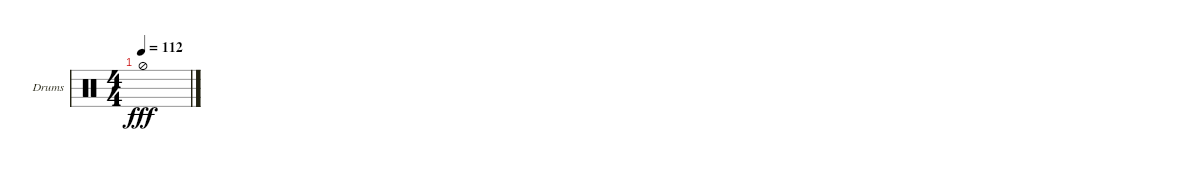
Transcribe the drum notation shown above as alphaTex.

\defaultSystemsLayout 4
\bracketExtendMode groupsimilarinstruments
\firstSystemTrackNameOrientation horizontal
\otherSystemsTrackNameOrientation horizontal
\track ("Helders" "Drums") {instrument percussion}
\staff {score}
\articulation defaults
\ts (4 4)
\tempo 112
\clef neutral
\ks c "Hi-Hat (half)".1{dy fff}
